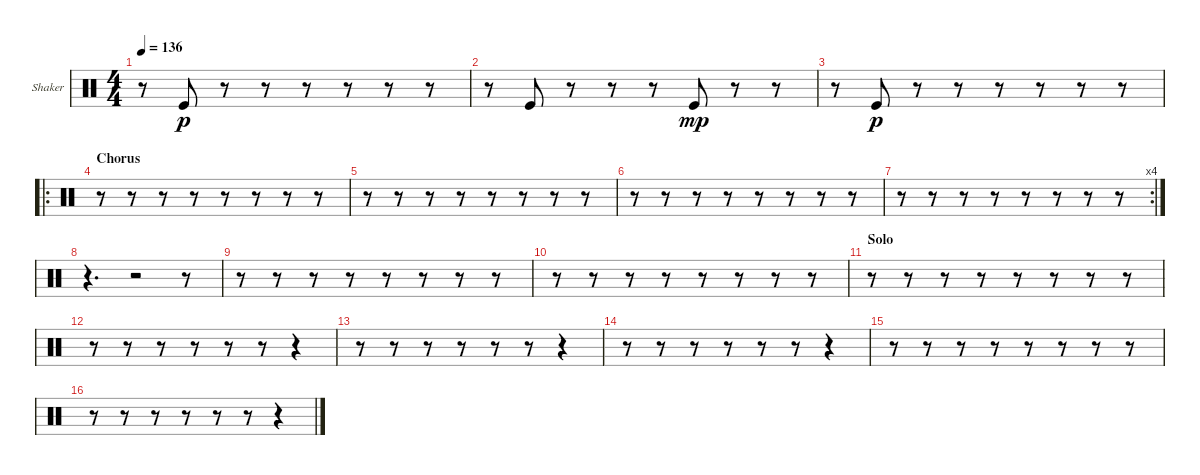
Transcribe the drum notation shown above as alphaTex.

\bracketExtendMode groupsimilarinstruments
\firstSystemTrackNameOrientation horizontal
\otherSystemsTrackNameOrientation horizontal
\track ("Shaker" "Shaker") {instrument percussion}
\staff {score}
\articulation defaults
\ts (4 4)
\tempo 136
\clef neutral
\ks c
r.8{dy mp} "Kick (hit)".8{dy p} r.8 r.8 r.8 r.8 r.8 r.8 |
r.8 "Kick (hit)".8 r.8 r.8 r.8 "Kick (hit)".8{dy mp} r.8 r.8 |
r.8 "Kick (hit)".8{dy p} r.8 r.8 r.8 r.8 r.8 r.8 |
\ro
\section ("" "Chorus")
r.8 r.8 r.8 r.8 r.8 r.8 r.8 r.8 |
r.8 r.8 r.8 r.8 r.8 r.8 r.8 r.8 |
r.8 r.8 r.8 r.8 r.8 r.8 r.8 r.8 |
\rc 4
r.8 r.8 r.8 r.8 r.8 r.8 r.8 r.8 |
r.4{d} r.2 r.8 |
r.8 r.8 r.8 r.8 r.8 r.8 r.8 r.8 |
r.8 r.8 r.8 r.8 r.8 r.8 r.8 r.8 |
\section ("" "Solo")
r.8 r.8 r.8 r.8 r.8 r.8 r.8 r.8 |
r.8 r.8 r.8 r.8 r.8 r.8 r.4 |
r.8 r.8 r.8 r.8 r.8 r.8 r.4 |
r.8 r.8 r.8 r.8 r.8 r.8 r.4 |
r.8 r.8 r.8 r.8 r.8 r.8 r.8 r.8 |
r.8 r.8 r.8 r.8 r.8 r.8 r.4
